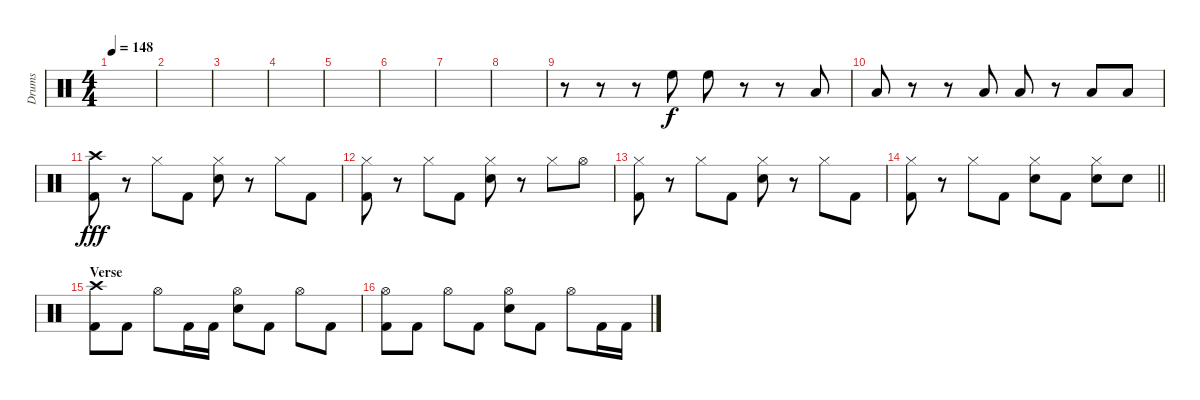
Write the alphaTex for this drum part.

\track ("Drums" "Drums") {instrument percussion}
\staff {score}
\articulation defaults
\ts (4 4)
\tempo 148
\clef neutral
\ks c
|
|
|
|
|
|
|
|
r.8 r.8 r.8 "High Floor Tom (hit)".8{dy f} "High Floor Tom (hit)".8 r.8 r.8 "Low Tom (hit)".8 |
"Low Tom (hit)".8 r.8 r.8 "Low Floor Tom (hit)".8 "Low Floor Tom (hit)".8 r.8 "Low Floor Tom (hit)".8 "Low Floor Tom (hit)".8 |
("Crash high (hit)" "Kick (hit) 2").8{dy fff} r.8 "Hi-Hat (closed)".8 "Kick (hit) 2".8 ("Hi-Hat (closed)" "Electric Snare (hit)").8 r.8 "Hi-Hat (closed)".8 "Kick (hit) 2".8 |
("Hi-Hat (closed)" "Kick (hit) 2").8 r.8 "Hi-Hat (closed)".8 "Kick (hit) 2".8 ("Hi-Hat (closed)" "Electric Snare (hit)").8 r.8 "Hi-Hat (closed)".8 "Hi-Hat (open)".8 |
("Hi-Hat (closed)" "Kick (hit) 2").8 r.8 "Hi-Hat (closed)".8 "Kick (hit) 2".8 ("Hi-Hat (closed)" "Electric Snare (hit)").8 r.8 "Hi-Hat (closed)".8 "Kick (hit) 2".8 |
\barLineRight lightlight
("Hi-Hat (closed)" "Kick (hit) 2").8 r.8 "Hi-Hat (closed)".8 "Kick (hit) 2".8 ("Hi-Hat (closed)" "Electric Snare (hit)").8 "Kick (hit) 2".8 ("Hi-Hat (closed)" "Electric Snare (hit)").8 "Electric Snare (hit)".8 |
\section ("" "Verse")
("Crash high (hit)" "Kick (hit) 2").8 "Kick (hit) 2".8 "Hi-Hat (open)".8 "Kick (hit) 2".16 "Kick (hit) 2".16 ("Hi-Hat (open)" "Electric Snare (hit)").8 "Kick (hit) 2".8 "Hi-Hat (open)".8 "Kick (hit) 2".8 |
("Hi-Hat (open)" "Kick (hit) 2").8 "Kick (hit) 2".8 "Hi-Hat (open)".8 "Kick (hit) 2".8 ("Hi-Hat (open)" "Electric Snare (hit)").8 "Kick (hit) 2".8 "Hi-Hat (open)".8 "Kick (hit) 2".16 "Kick (hit) 2".16
